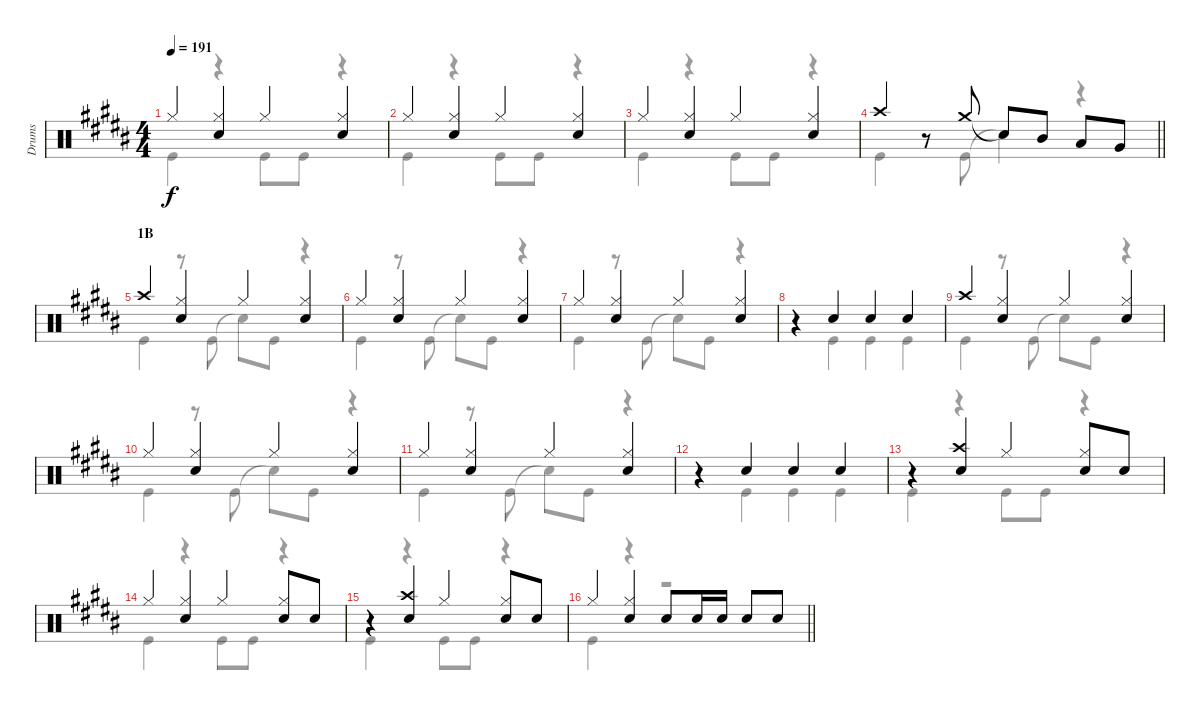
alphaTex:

\track ("Drums" "Drums") {instrument percussion}
\staff {score}
\articulation defaults
\voice
\ts (4 4)
\tempo 191
\clef neutral
\ks b "Hi-Hat (closed)".4{dy f}
("Hi-Hat (closed)" "Snare (hit) 2").4 "Hi-Hat (closed)".4 ("Hi-Hat (closed)" "Snare (hit) 2").4 |
"Hi-Hat (closed)".4 ("Hi-Hat (closed)" "Snare (hit) 2").4 "Hi-Hat (closed)".4 ("Hi-Hat (closed)" "Snare (hit) 2").4 |
"Hi-Hat (closed)".4 ("Hi-Hat (closed)" "Snare (hit) 2").4 "Hi-Hat (closed)".4 ("Hi-Hat (closed)" "Snare (hit) 2").4 |
\barLineRight lightlight "Crash high (hit)".4
r.8 "Crash medium (hit)".8 "Snare (hit)"{t}.8 "Mid Tom (hit)".8 "Low Tom (hit)".8 "Very Low Tom (hit)".8 |
\section ("" "1B")
"Crash high (hit)".4 ("Hi-Hat (closed)" "Snare (hit) 2").4 "Hi-Hat (closed)".4 ("Hi-Hat (closed)" "Snare (hit) 2").4 |
"Hi-Hat (closed)".4 ("Hi-Hat (closed)" "Snare (hit) 2").4 "Hi-Hat (closed)".4 ("Hi-Hat (closed)" "Snare (hit) 2").4 |
"Hi-Hat (closed)".4 ("Hi-Hat (closed)" "Snare (hit) 2").4 "Hi-Hat (closed)".4 ("Hi-Hat (closed)" "Snare (hit) 2").4 |
r.4 "Snare (hit) 2".4 "Snare (hit) 2".4 "Snare (hit) 2".4 |
"Crash high (hit)".4 ("Hi-Hat (closed)" "Snare (hit) 2").4 "Hi-Hat (closed)".4 ("Hi-Hat (closed)" "Snare (hit) 2").4 |
"Hi-Hat (closed)".4 ("Hi-Hat (closed)" "Snare (hit) 2").4 "Hi-Hat (closed)".4 ("Hi-Hat (closed)" "Snare (hit) 2").4 |
"Hi-Hat (closed)".4 ("Hi-Hat (closed)" "Snare (hit) 2").4 "Hi-Hat (closed)".4 ("Hi-Hat (closed)" "Snare (hit) 2").4 |
r.4 "Snare (hit) 2".4 "Snare (hit) 2".4 "Snare (hit) 2".4 |
r.4 ("Crash high (hit)" "Snare (hit) 2").4 "Hi-Hat (closed)".4 ("Hi-Hat (closed)" "Snare (hit) 2").8 "Snare (hit) 2".8 |
"Hi-Hat (closed)".4 ("Hi-Hat (closed)" "Snare (hit) 2").4 "Hi-Hat (closed)".4 ("Hi-Hat (closed)" "Snare (hit) 2").8 "Snare (hit) 2".8 |
r.4 ("Crash high (hit)" "Snare (hit) 2").4 "Hi-Hat (closed)".4 ("Hi-Hat (closed)" "Snare (hit) 2").8 "Snare (hit) 2".8 |
\barLineRight lightlight "Hi-Hat (closed)".4
("Hi-Hat (closed)" "Snare (hit) 2").4 "Snare (hit) 2".8 "Snare (hit) 2".16 "Snare (hit) 2".16 "Snare (hit) 2".8 "Snare (hit) 2".8
\voice
\clef neutral
\ottava regular
\simile none
\ks b "Kick (hit)".4{dy f}
r.4 "Kick (hit)".8 "Kick (hit)".8 r.4 |
"Kick (hit)".4 r.4 "Kick (hit)".8 "Kick (hit)".8 r.4 |
"Kick (hit)".4 r.4 "Kick (hit)".8 "Kick (hit)".8 r.4 |
\barLineRight lightlight "Kick (hit)".4
r.8 "Kick (hit)".8 "Snare (hit)"{t}.4 r.4 |
"Kick (hit)".4 r.8 "Kick (hit)".8 "Snare (hit)"{t}.8 "Kick (hit)".8 r.4 |
"Kick (hit)".4 r.8 "Kick (hit)".8 "Snare (hit)"{t}.8 "Kick (hit)".8 r.4 |
"Kick (hit)".4 r.8 "Kick (hit)".8 "Snare (hit)"{t}.8 "Kick (hit)".8 r.4 |
r.4 "Kick (hit)".4 "Kick (hit)".4 "Kick (hit)".4 |
"Kick (hit)".4 r.8 "Kick (hit)".8 "Snare (hit)"{t}.8 "Kick (hit)".8 r.4 |
"Kick (hit)".4 r.8 "Kick (hit)".8 "Snare (hit)"{t}.8 "Kick (hit)".8 r.4 |
"Kick (hit)".4 r.8 "Kick (hit)".8 "Snare (hit)"{t}.8 "Kick (hit)".8 r.4 |
r.4 "Kick (hit)".4 "Kick (hit)".4 "Kick (hit)".4 |
"Kick (hit)".4 r.4 "Kick (hit)".8 "Kick (hit)".8 r.4 |
"Kick (hit)".4 r.4 "Kick (hit)".8 "Kick (hit)".8 r.4 |
"Kick (hit)".4 r.4 "Kick (hit)".8 "Kick (hit)".8 r.4 |
\barLineRight lightlight "Kick (hit)".4
r.4 r.2
